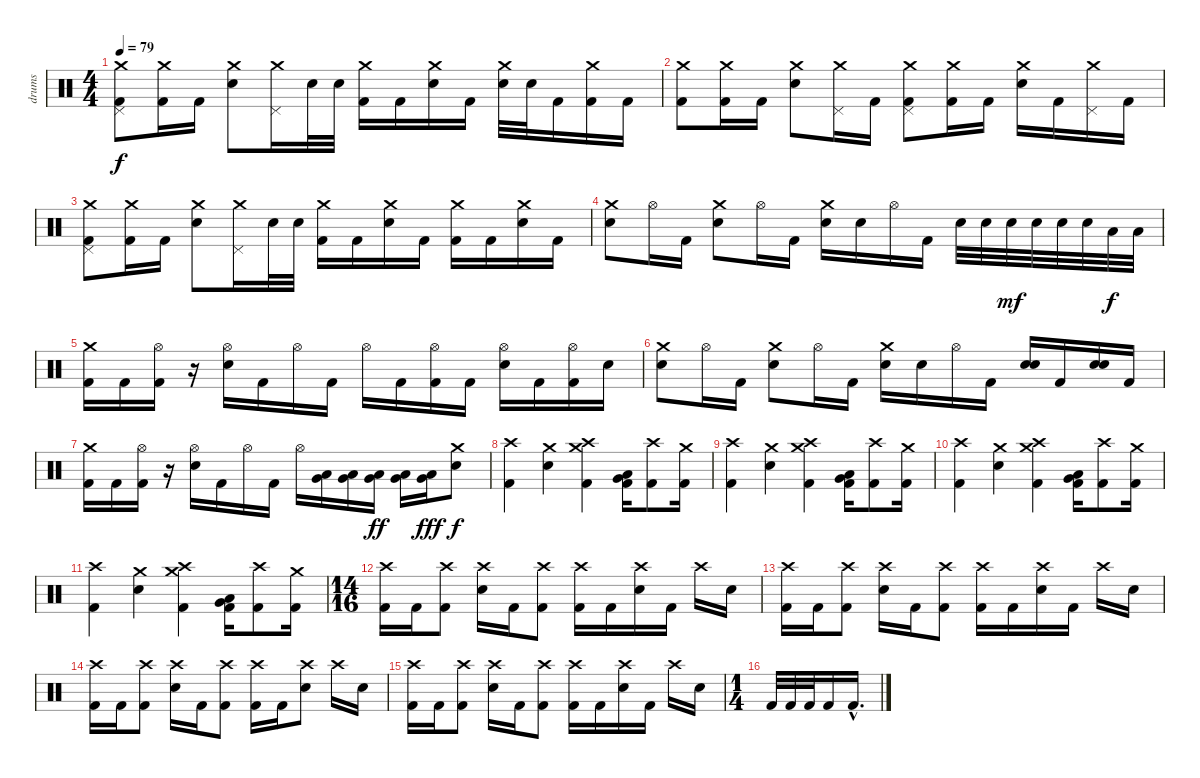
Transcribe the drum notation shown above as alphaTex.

\track ("drums" "drums") {instrument percussion}
\staff {score}
\articulation defaults
\ts (4 4)
\tempo 79
\clef neutral
\ks c
("Crash medium (hit)" "Pedal Hi-Hat (hit)" "Kick (hit) 2").8{dy f} ("Crash medium (hit)" "Kick (hit) 2").16 "Kick (hit) 2".16 ("Crash medium (hit)" "Electric Snare (hit)").8 ("Crash medium (hit)" "Pedal Hi-Hat (hit)").16 "Electric Snare (hit)".32 "Electric Snare (hit)".32 ("Crash medium (hit)" "Kick (hit) 2").16 "Kick (hit) 2".16 ("Crash medium (hit)" "Electric Snare (hit)").16 "Kick (hit) 2".16 ("Crash medium (hit)" "Electric Snare (hit)").32 "Electric Snare (hit)".32 "Kick (hit) 2".16 ("Crash medium (hit)" "Kick (hit) 2").16 "Kick (hit) 2".16 |
("Crash medium (hit)" "Kick (hit) 2").8 ("Crash medium (hit)" "Kick (hit) 2").16 "Kick (hit) 2".16 ("Crash medium (hit)" "Electric Snare (hit)").8 ("Crash medium (hit)" "Pedal Hi-Hat (hit)").16 "Kick (hit) 2".16 ("Crash medium (hit)" "Pedal Hi-Hat (hit)" "Kick (hit) 2").8 ("Crash medium (hit)" "Kick (hit) 2").16 "Kick (hit) 2".16 ("Crash medium (hit)" "Electric Snare (hit)").16 "Kick (hit) 2".16 ("Crash medium (hit)" "Pedal Hi-Hat (hit)").16 "Kick (hit) 2".16 |
("Crash medium (hit)" "Pedal Hi-Hat (hit)" "Kick (hit) 2").8 ("Crash medium (hit)" "Kick (hit) 2").16 "Kick (hit) 2".16 ("Crash medium (hit)" "Electric Snare (hit)").8 ("Crash medium (hit)" "Pedal Hi-Hat (hit)").16 "Electric Snare (hit)".32 "Electric Snare (hit)".32 ("Crash medium (hit)" "Kick (hit) 2").16 "Kick (hit) 2".16 ("Crash medium (hit)" "Electric Snare (hit)").16 "Kick (hit) 2".16 ("Crash medium (hit)" "Kick (hit) 2").16 "Kick (hit) 2".16 ("Crash medium (hit)" "Electric Snare (hit)").16 "Kick (hit) 2".16 |
("Crash medium (hit)" "Electric Snare (hit)").8 "Hi-Hat (open)".16 "Kick (hit) 2".16 ("Crash medium (hit)" "Electric Snare (hit)").8 "Hi-Hat (open)".16 "Kick (hit) 2".16 ("Crash medium (hit)" "Electric Snare (hit)").16 "Electric Snare (hit)".16 "Hi-Hat (open)".16 "Kick (hit) 2".16 "Electric Snare (hit)".32 "Electric Snare (hit)".32 "Electric Snare (hit)".32{dy mf} "Electric Snare (hit)".32 "Electric Snare (hit)".32 "Electric Snare (hit)".32 "Low Tom (hit)".32{dy f} "Low Tom (hit)".32 |
("Crash medium (hit)" "Kick (hit) 2").16 "Kick (hit) 2".16 ("Hi-Hat (open)" "Kick (hit) 2").16 r.16 ("Hi-Hat (open)" "Electric Snare (hit)").16 "Kick (hit) 2".16 "Hi-Hat (open)".16 "Kick (hit) 2".16 "Hi-Hat (open)".16 "Kick (hit) 2".16 ("Hi-Hat (open)" "Kick (hit) 2").16 "Kick (hit) 2".16 ("Hi-Hat (open)" "Electric Snare (hit)").16 "Kick (hit) 2".16 ("Hi-Hat (open)" "Kick (hit) 2").16 "Electric Snare (hit)".16 |
("Crash medium (hit)" "Electric Snare (hit)").8 "Hi-Hat (open)".16 "Kick (hit) 2".16 ("Crash medium (hit)" "Electric Snare (hit)").8 "Hi-Hat (open)".16 "Kick (hit) 2".16 ("Crash medium (hit)" "Electric Snare (hit)").16 "Electric Snare (hit)".16 "Hi-Hat (open)".16 "Kick (hit) 2".16 ("Electric Snare (hit)" "Electric Snare (hit)").16{bd 120} "Kick (hit) 2".16 ("Electric Snare (hit)" "Electric Snare (hit)").16{bd 120} "Kick (hit) 2".16 |
("Crash medium (hit)" "Kick (hit) 2").16 "Kick (hit) 2".16 ("Hi-Hat (open)" "Kick (hit) 2").16 r.16 ("Hi-Hat (open)" "Electric Snare (hit)").16 "Kick (hit) 2".16 "Hi-Hat (open)".16 "Kick (hit) 2".16 "Hi-Hat (open)".16 ("Low Tom (hit)" "Very Low Tom (hit)").16 ("Low Tom (hit)" "Very Low Tom (hit)").16 ("Low Tom (hit)" "Very Low Tom (hit)").16{dy ff} ("Low Tom (hit)" "Very Low Tom (hit)").16 ("Low Tom (hit)" "Very Low Tom (hit)").16{dy fff} ("Crash medium (hit)" "Electric Snare (hit)").8{dy f} |
("Crash high (hit)" "Kick (hit) 2").4 ("Crash medium (hit)" "Electric Snare (hit)").4 ("Crash high (hit)" "Crash medium (hit)" "Kick (hit) 2").4 ("Very Low Tom (hit)" "Low Tom (hit)" "Kick (hit) 2").16 ("Crash high (hit)" "Kick (hit) 2").8 ("Crash medium (hit)" "Kick (hit) 2").16 |
("Crash high (hit)" "Kick (hit) 2").4 ("Crash medium (hit)" "Electric Snare (hit)").4 ("Crash high (hit)" "Crash medium (hit)" "Kick (hit) 2").4 ("Very Low Tom (hit)" "Low Tom (hit)" "Kick (hit) 2").16 ("Crash high (hit)" "Kick (hit) 2").8 ("Crash medium (hit)" "Kick (hit) 2").16 |
("Crash high (hit)" "Kick (hit) 2").4 ("Crash medium (hit)" "Electric Snare (hit)").4 ("Crash high (hit)" "Crash medium (hit)" "Kick (hit) 2").4 ("Very Low Tom (hit)" "Low Tom (hit)" "Kick (hit) 2").16 ("Crash high (hit)" "Kick (hit) 2").8 ("Crash medium (hit)" "Kick (hit) 2").16 |
("Crash high (hit)" "Kick (hit) 2").4 ("Crash medium (hit)" "Electric Snare (hit)").4 ("Crash high (hit)" "Crash medium (hit)" "Kick (hit) 2").4 ("Very Low Tom (hit)" "Low Tom (hit)" "Kick (hit) 2").16 ("Crash high (hit)" "Kick (hit) 2").8 ("Crash medium (hit)" "Kick (hit) 2").16 |
\ts (14 16)
("Crash high (hit)" "Kick (hit) 2").16 "Kick (hit) 2".16 ("Crash high (hit)" "Kick (hit) 2").8 ("Crash high (hit)" "Electric Snare (hit)").16 "Kick (hit) 2".16 ("Crash high (hit)" "Kick (hit) 2").8 ("Crash high (hit)" "Kick (hit) 2").16 "Kick (hit) 2".16 ("Crash high (hit)" "Electric Snare (hit)").16 "Kick (hit) 2".16 "Crash high (hit)".16 "Electric Snare (hit)".16 |
("Crash high (hit)" "Kick (hit) 2").16 "Kick (hit) 2".16 ("Crash high (hit)" "Kick (hit) 2").8 ("Crash high (hit)" "Electric Snare (hit)").16 "Kick (hit) 2".16 ("Crash high (hit)" "Kick (hit) 2").8 ("Crash high (hit)" "Kick (hit) 2").16 "Kick (hit) 2".16 ("Crash high (hit)" "Electric Snare (hit)").16 "Kick (hit) 2".16 "Crash high (hit)".16 "Electric Snare (hit)".16 |
("Crash high (hit)" "Kick (hit) 2").16 "Kick (hit) 2".16 ("Crash high (hit)" "Kick (hit) 2").8 ("Crash high (hit)" "Electric Snare (hit)").16 "Kick (hit) 2".16 ("Crash high (hit)" "Kick (hit) 2").8 ("Crash high (hit)" "Kick (hit) 2").16 "Kick (hit) 2".16 ("Crash high (hit)" "Electric Snare (hit)").8 "Crash high (hit)".16 "Electric Snare (hit)".16 |
("Crash high (hit)" "Kick (hit) 2").16 "Kick (hit) 2".16 ("Crash high (hit)" "Kick (hit) 2").8 ("Crash high (hit)" "Electric Snare (hit)").16 "Kick (hit) 2".16 ("Crash high (hit)" "Kick (hit) 2").8 ("Crash high (hit)" "Kick (hit) 2").16 "Kick (hit) 2".16 ("Crash high (hit)" "Electric Snare (hit)").16 "Kick (hit) 2".16 "Crash high (hit)".16 "Electric Snare (hit)".16 |
\ts (1 4)
"Kick (hit) 2".32 "Kick (hit) 2".32 "Kick (hit) 2".32 "Kick (hit) 2".16 "Kick (hit) 2"{hac}.16{d}
